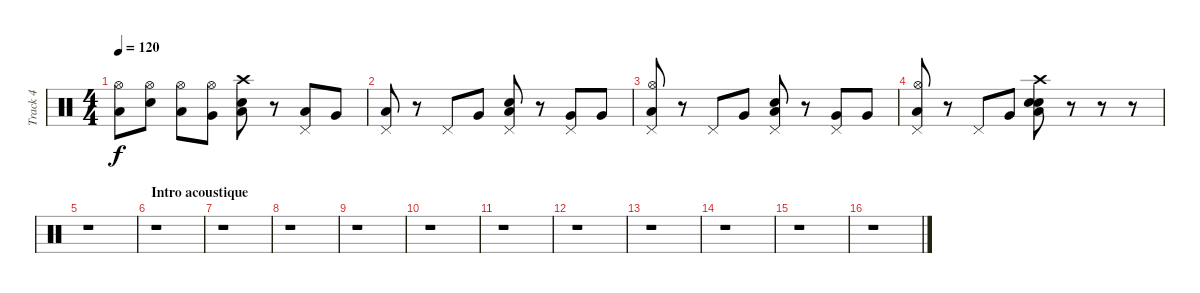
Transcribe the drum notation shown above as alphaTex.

\track ("Track 4" "Track 4") {instrument percussion}
\staff {score}
\articulation defaults
\ts (4 4)
\tempo 120
\clef neutral
\ks c
("Low Tom (hit)" "Hi-Hat (open)").8{dy f} ("Electric Snare (hit)" "Hi-Hat (open)").8 ("Low Tom (hit)" "Hi-Hat (open)").8 ("Very Low Tom (hit)" "Hi-Hat (open)").8 ("Low Tom (hit)" "Electric Snare (hit)" "Crash high (hit)").8 r.8 ("Pedal Hi-Hat (hit)" "Low Floor Tom (hit)").8 "Very Low Tom (hit)".8 |
("Pedal Hi-Hat (hit)" "Low Tom (hit)").8 r.8 "Pedal Hi-Hat (hit)".8 "Very Low Tom (hit)".8 ("Pedal Hi-Hat (hit)" "Low Tom (hit)" "Electric Snare (hit)").8 r.8 ("Pedal Hi-Hat (hit)" "Very Low Tom (hit)").8 "Very Low Tom (hit)".8 |
("Pedal Hi-Hat (hit)" "Low Tom (hit)" "Hi-Hat (open)").8 r.8 "Pedal Hi-Hat (hit)".8 "Very Low Tom (hit)".8 ("Pedal Hi-Hat (hit)" "Low Tom (hit)" "Electric Snare (hit)").8 r.8 ("Pedal Hi-Hat (hit)" "Very Low Tom (hit)").8 "Very Low Tom (hit)".8 |
("Pedal Hi-Hat (hit)" "Low Tom (hit)" "Hi-Hat (open)").8 r.8 "Pedal Hi-Hat (hit)".8 "Very Low Tom (hit)".8 ("Low Tom (hit)" "Electric Snare (hit)" "Crash high (hit)" "Snare (hit) 2").8 r.8 r.8 r.8 |
r.1 |
\section ("" "Intro acoustique")
r.1 |
r.1 |
r.1 |
r.1 |
r.1 |
r.1 |
r.1 |
r.1 |
r.1 |
r.1 |
r.1
